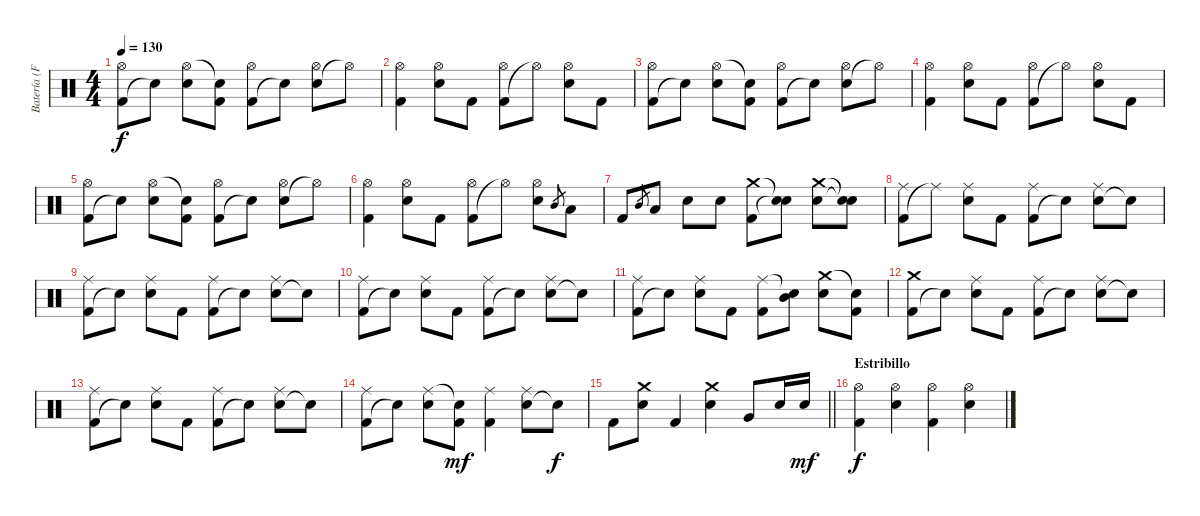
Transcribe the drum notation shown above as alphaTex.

\track ("Batería (F. Scarcella)" "Batería (F") {instrument percussion}
\staff {score}
\articulation defaults
\ts (4 4)
\tempo 130
\clef neutral
\ks c
("Kick (hit) 2" "Hi-Hat (open)").8{dy f} "Snare (hit)"{t}.8 ("Snare (hit) 2" "Hi-Hat (open)").8 ("Kick (hit) 2" "Snare (hit)"{t}).8 ("Kick (hit) 2" "Hi-Hat (open)").8 "Snare (hit)"{t}.8 ("Snare (hit) 2" "Hi-Hat (open)").8 "Hi-Hat (open)"{t}.8 |
("Kick (hit) 2" "Hi-Hat (open)").4 ("Snare (hit) 2" "Hi-Hat (open)").8 "Kick (hit) 2".8 ("Kick (hit) 2" "Hi-Hat (open)").8 "Hi-Hat (open)"{t}.8 ("Snare (hit) 2" "Hi-Hat (open)").8 "Kick (hit) 2".8 |
("Kick (hit) 2" "Hi-Hat (open)").8 "Snare (hit)"{t}.8 ("Snare (hit) 2" "Hi-Hat (open)").8 ("Kick (hit) 2" "Snare (hit)"{t}).8 ("Kick (hit) 2" "Hi-Hat (open)").8 "Snare (hit)"{t}.8 ("Snare (hit) 2" "Hi-Hat (open)").8 "Hi-Hat (open)"{t}.8 |
("Kick (hit) 2" "Hi-Hat (open)").4 ("Snare (hit) 2" "Hi-Hat (open)").8 "Kick (hit) 2".8 ("Kick (hit) 2" "Hi-Hat (open)").8 "Hi-Hat (open)"{t}.8 ("Snare (hit) 2" "Hi-Hat (open)").8 "Kick (hit) 2".8 |
("Kick (hit) 2" "Hi-Hat (open)").8 "Snare (hit)"{t}.8 ("Snare (hit) 2" "Hi-Hat (open)").8 ("Kick (hit) 2" "Snare (hit)"{t}).8 ("Kick (hit) 2" "Hi-Hat (open)").8 "Snare (hit)"{t}.8 ("Snare (hit) 2" "Hi-Hat (open)").8 "Hi-Hat (open)"{t}.8 |
("Kick (hit) 2" "Hi-Hat (open)").4 ("Snare (hit) 2" "Hi-Hat (open)").8 "Kick (hit) 2".8 ("Kick (hit) 2" "Hi-Hat (open)").8 "Hi-Hat (open)"{t}.8 ("Snare (hit) 2" "Hi-Hat (open)").8 "Mid Tom (hit)".8{gr} "Low Tom (hit)".8 |
"Kick (hit) 2".8 "Mid Tom (hit)".8{gr} "Low Tom (hit)".8 "Snare (hit) 2".8 "Snare (hit) 2".8 ("Kick (hit) 2" "Crash medium (hit)").8 ("Snare (hit) 2"{t} "Snare (hit)"{t}).8 ("Snare (hit) 2" "Crash medium (hit)").8 ("Snare (hit)"{t} "Snare (hit)"{t}).8 |
("Kick (hit) 2" "Ride (middle)").8 "Ride (middle)"{t}.8 ("Snare (hit) 2" "Ride (middle)").8 "Kick (hit) 2".8 ("Kick (hit) 2" "Ride (middle)").8 "Snare (hit)"{t}.8 ("Snare (hit) 2" "Ride (middle)").8 "Snare (hit)"{t}.8 |
("Kick (hit) 2" "Ride (middle)").8 "Snare (hit)"{t}.8 ("Snare (hit) 2" "Ride (middle)").8 "Kick (hit) 2".8 ("Kick (hit) 2" "Ride (middle)").8 "Snare (hit)"{t}.8 ("Snare (hit) 2" "Ride (middle)").8 "Snare (hit)"{t}.8 |
("Kick (hit) 2" "Ride (middle)").8 "Snare (hit)"{t}.8 ("Snare (hit) 2" "Ride (middle)").8 "Kick (hit) 2".8 ("Kick (hit) 2" "Ride (middle)").8 "Snare (hit)"{t}.8 ("Snare (hit) 2" "Ride (middle)").8 "Snare (hit)"{t}.8 |
("Kick (hit) 2" "Ride (middle)").8 "Snare (hit)"{t}.8 ("Snare (hit) 2" "Ride (middle)").8 "Kick (hit) 2".8 ("Kick (hit) 2" "Ride (middle)").8 ("Mid Tom (hit)" "Snare (hit)"{t}).8 ("Snare (hit) 2" "Crash medium (hit)").8 ("Kick (hit) 2" "Snare (hit)"{t}).8 |
("Kick (hit) 2" "Crash medium (hit)").8 "Snare (hit)"{t}.8 ("Snare (hit) 2" "Ride (middle)").8 "Kick (hit) 2".8 ("Kick (hit) 2" "Ride (middle)").8 "Snare (hit)"{t}.8 ("Snare (hit) 2" "Ride (middle)").8 "Snare (hit)"{t}.8 |
("Kick (hit) 2" "Ride (middle)").8 "Snare (hit)"{t}.8 ("Snare (hit) 2" "Ride (middle)").8 "Kick (hit) 2".8 ("Kick (hit) 2" "Ride (middle)").8 "Snare (hit)"{t}.8 ("Snare (hit) 2" "Ride (middle)").8 "Snare (hit)"{t}.8 |
("Kick (hit) 2" "Ride (middle)").8 "Snare (hit)"{t}.8 ("Snare (hit) 2" "Ride (middle)").8 ("Kick (hit) 2" "Snare (hit)"{t}).8{dy mf} ("Kick (hit) 2" "Ride (middle)").4 ("Snare (hit) 2" "Ride (middle)").8 "Snare (hit)"{t}.8{dy f} |
\barLineRight lightlight "Kick (hit) 2".8
("Snare (hit) 2" "Crash medium (hit)").8 "Kick (hit) 2".4 ("Snare (hit) 2" "Crash medium (hit)").4 "Very Low Tom (hit)".8 "Snare (hit) 2".16 "Snare (hit) 2".16{dy mf} |
\section ("" "Estribillo")
("Kick (hit) 2" "Hi-Hat (open)").4{dy f} ("Snare (hit) 2" "Hi-Hat (open)").4 ("Kick (hit) 2" "Hi-Hat (open)").4 ("Snare (hit) 2" "Hi-Hat (open)").4
